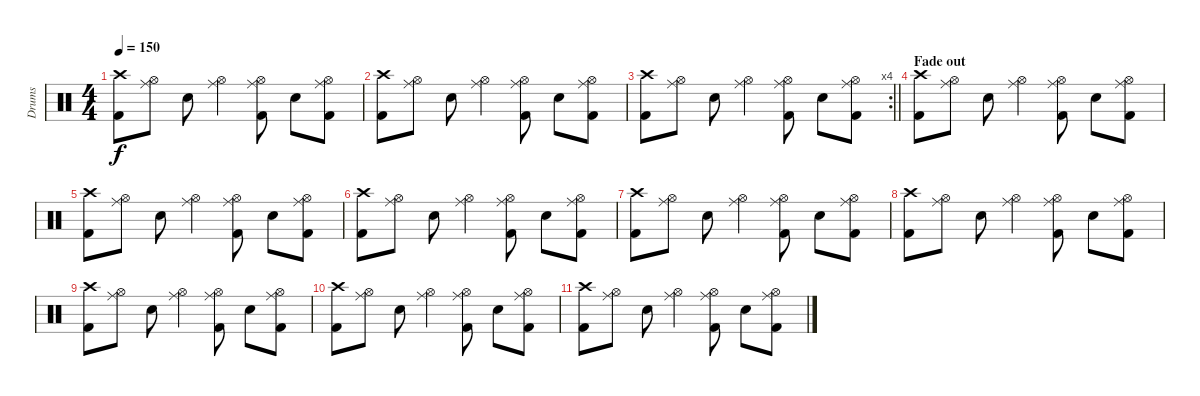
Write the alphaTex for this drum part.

\track ("Drums" "Drums") {instrument percussion}
\staff {score}
\articulation defaults
\ts (4 4)
\tempo 150
\clef neutral
\ks c
("Crash high (hit)" "Kick (hit) 2").8{dy f} ("Ride (middle)" "Hi-Hat (open)").8 "Electric Snare (hit)".8 ("Ride (middle)" "Hi-Hat (open)").4 ("Ride (middle)" "Hi-Hat (open)" "Kick (hit) 2").8 "Electric Snare (hit)".8 ("Ride (middle)" "Hi-Hat (open)" "Kick (hit) 2").8 |
("Crash high (hit)" "Kick (hit) 2").8 ("Ride (middle)" "Hi-Hat (open)").8 "Electric Snare (hit)".8 ("Ride (middle)" "Hi-Hat (open)").4 ("Ride (middle)" "Hi-Hat (open)" "Kick (hit) 2").8 "Electric Snare (hit)".8 ("Ride (middle)" "Hi-Hat (open)" "Kick (hit) 2").8 |
\rc 4
\barLineRight lightlight
("Crash high (hit)" "Kick (hit) 2").8 ("Ride (middle)" "Hi-Hat (open)").8 "Electric Snare (hit)".8 ("Ride (middle)" "Hi-Hat (open)").4 ("Ride (middle)" "Hi-Hat (open)" "Kick (hit) 2").8 "Electric Snare (hit)".8 ("Ride (middle)" "Hi-Hat (open)" "Kick (hit) 2").8 |
\section ("" "Fade out")
("Crash high (hit)" "Kick (hit) 2").8 ("Ride (middle)" "Hi-Hat (open)").8 "Electric Snare (hit)".8 ("Ride (middle)" "Hi-Hat (open)").4 ("Ride (middle)" "Hi-Hat (open)" "Kick (hit) 2").8 "Electric Snare (hit)".8 ("Ride (middle)" "Hi-Hat (open)" "Kick (hit) 2").8 |
("Crash high (hit)" "Kick (hit) 2").8{volume 10} ("Ride (middle)" "Hi-Hat (open)").8 "Electric Snare (hit)".8 ("Ride (middle)" "Hi-Hat (open)").4 ("Ride (middle)" "Hi-Hat (open)" "Kick (hit) 2").8 "Electric Snare (hit)".8 ("Ride (middle)" "Hi-Hat (open)" "Kick (hit) 2").8 |
("Crash high (hit)" "Kick (hit) 2").8{volume 8} ("Ride (middle)" "Hi-Hat (open)").8 "Electric Snare (hit)".8 ("Ride (middle)" "Hi-Hat (open)").4 ("Ride (middle)" "Hi-Hat (open)" "Kick (hit) 2").8 "Electric Snare (hit)".8 ("Ride (middle)" "Hi-Hat (open)" "Kick (hit) 2").8 |
("Crash high (hit)" "Kick (hit) 2").8{volume 6} ("Ride (middle)" "Hi-Hat (open)").8 "Electric Snare (hit)".8 ("Ride (middle)" "Hi-Hat (open)").4 ("Ride (middle)" "Hi-Hat (open)" "Kick (hit) 2").8 "Electric Snare (hit)".8 ("Ride (middle)" "Hi-Hat (open)" "Kick (hit) 2").8 |
("Crash high (hit)" "Kick (hit) 2").8{volume 4} ("Ride (middle)" "Hi-Hat (open)").8 "Electric Snare (hit)".8 ("Ride (middle)" "Hi-Hat (open)").4 ("Ride (middle)" "Hi-Hat (open)" "Kick (hit) 2").8 "Electric Snare (hit)".8 ("Ride (middle)" "Hi-Hat (open)" "Kick (hit) 2").8 |
("Crash high (hit)" "Kick (hit) 2").8{volume 2} ("Ride (middle)" "Hi-Hat (open)").8 "Electric Snare (hit)".8 ("Ride (middle)" "Hi-Hat (open)").4 ("Ride (middle)" "Hi-Hat (open)" "Kick (hit) 2").8 "Electric Snare (hit)".8 ("Ride (middle)" "Hi-Hat (open)" "Kick (hit) 2").8 |
("Crash high (hit)" "Kick (hit) 2").8{volume 1} ("Ride (middle)" "Hi-Hat (open)").8 "Electric Snare (hit)".8 ("Ride (middle)" "Hi-Hat (open)").4 ("Ride (middle)" "Hi-Hat (open)" "Kick (hit) 2").8 "Electric Snare (hit)".8 ("Ride (middle)" "Hi-Hat (open)" "Kick (hit) 2").8 |
("Crash high (hit)" "Kick (hit) 2").8{volume 0} ("Ride (middle)" "Hi-Hat (open)").8 "Electric Snare (hit)".8 ("Ride (middle)" "Hi-Hat (open)").4 ("Ride (middle)" "Hi-Hat (open)" "Kick (hit) 2").8 "Electric Snare (hit)".8 ("Ride (middle)" "Hi-Hat (open)" "Kick (hit) 2").8
